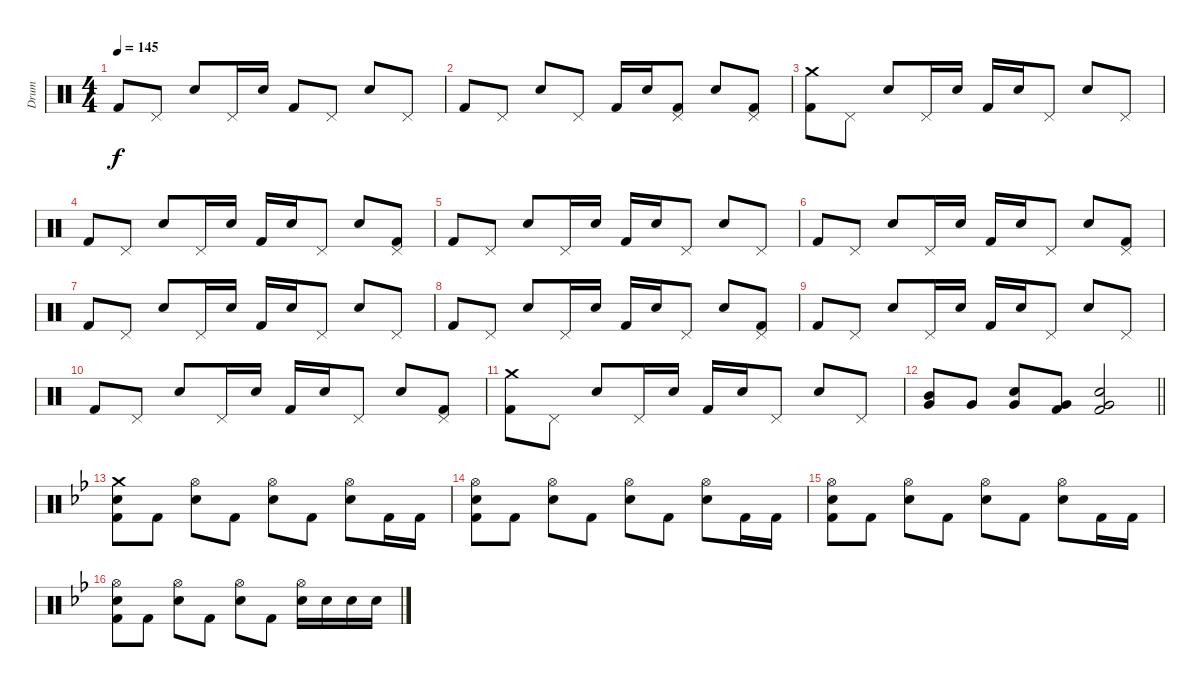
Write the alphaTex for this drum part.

\track ("Drum" "Drum") {instrument percussion}
\staff {score}
\articulation defaults
\ts (4 4)
\tempo 145
\clef neutral
\ks c "Kick (hit) 2".8{dy f} "Pedal Hi-Hat (hit)".8 "Snare (hit) 2".8 "Pedal Hi-Hat (hit)".16 "Snare (hit) 2".16 "Kick (hit) 2".8 "Pedal Hi-Hat (hit)".8 "Snare (hit) 2".8 "Pedal Hi-Hat (hit)".8
|
"Kick (hit) 2".8 "Pedal Hi-Hat (hit)".8 "Snare (hit) 2".8 "Pedal Hi-Hat (hit)".8 "Kick (hit) 2".16 "Snare (hit) 2".16 ("Pedal Hi-Hat (hit)" "Kick (hit) 2").8 "Snare (hit) 2".8 ("Pedal Hi-Hat (hit)" "Kick (hit) 2").8 |
("Crash medium (hit)" "Kick (hit) 2").8 "Pedal Hi-Hat (hit)".8 "Snare (hit) 2".8 "Pedal Hi-Hat (hit)".16 "Snare (hit) 2".16 "Kick (hit) 2".16 "Snare (hit) 2".16 "Pedal Hi-Hat (hit)".8 "Snare (hit) 2".8 "Pedal Hi-Hat (hit)".8 |
"Kick (hit) 2".8 "Pedal Hi-Hat (hit)".8 "Snare (hit) 2".8 "Pedal Hi-Hat (hit)".16 "Snare (hit) 2".16 "Kick (hit) 2".16 "Snare (hit) 2".16 "Pedal Hi-Hat (hit)".8 "Snare (hit) 2".8 ("Pedal Hi-Hat (hit)" "Kick (hit) 2").8 |
"Kick (hit) 2".8 "Pedal Hi-Hat (hit)".8 "Snare (hit) 2".8 "Pedal Hi-Hat (hit)".16 "Snare (hit) 2".16 "Kick (hit) 2".16 "Snare (hit) 2".16 "Pedal Hi-Hat (hit)".8 "Snare (hit) 2".8 "Pedal Hi-Hat (hit)".8 |
"Kick (hit) 2".8 "Pedal Hi-Hat (hit)".8 "Snare (hit) 2".8 "Pedal Hi-Hat (hit)".16 "Snare (hit) 2".16 "Kick (hit) 2".16 "Snare (hit) 2".16 "Pedal Hi-Hat (hit)".8 "Snare (hit) 2".8 ("Pedal Hi-Hat (hit)" "Kick (hit) 2").8 |
"Kick (hit) 2".8 "Pedal Hi-Hat (hit)".8 "Snare (hit) 2".8 "Pedal Hi-Hat (hit)".16 "Snare (hit) 2".16 "Kick (hit) 2".16 "Snare (hit) 2".16 "Pedal Hi-Hat (hit)".8 "Snare (hit) 2".8 "Pedal Hi-Hat (hit)".8 |
"Kick (hit) 2".8 "Pedal Hi-Hat (hit)".8 "Snare (hit) 2".8 "Pedal Hi-Hat (hit)".16 "Snare (hit) 2".16 "Kick (hit) 2".16 "Snare (hit) 2".16 "Pedal Hi-Hat (hit)".8 "Snare (hit) 2".8 ("Pedal Hi-Hat (hit)" "Kick (hit) 2").8 |
"Kick (hit) 2".8 "Pedal Hi-Hat (hit)".8 "Snare (hit) 2".8 "Pedal Hi-Hat (hit)".16 "Snare (hit) 2".16 "Kick (hit) 2".16 "Snare (hit) 2".16 "Pedal Hi-Hat (hit)".8 "Snare (hit) 2".8 "Pedal Hi-Hat (hit)".8 |
"Kick (hit) 2".8 "Pedal Hi-Hat (hit)".8 "Snare (hit) 2".8 "Pedal Hi-Hat (hit)".16 "Snare (hit) 2".16 "Kick (hit) 2".16 "Snare (hit) 2".16 "Pedal Hi-Hat (hit)".8 "Snare (hit) 2".8 ("Pedal Hi-Hat (hit)" "Kick (hit) 2").8 |
("Crash medium (hit)" "Kick (hit) 2").8 "Pedal Hi-Hat (hit)".8 "Snare (hit) 2".8 "Pedal Hi-Hat (hit)".16 "Snare (hit) 2".16 "Kick (hit) 2".16 "Snare (hit) 2".16 "Pedal Hi-Hat (hit)".8 "Snare (hit) 2".8 "Pedal Hi-Hat (hit)".8 |
\barLineRight lightlight
("Mid Tom (hit)" "Very Low Tom (hit)").8 "Very Low Tom (hit)".8 ("Snare (hit) 2" "Very Low Tom (hit)").8 ("Very Low Tom (hit)" "Kick (hit) 2").8 ("Snare (hit) 2" "Very Low Tom (hit)" "Kick (hit) 2").2 |
\ks bb
("Crash medium (hit)" "Snare (hit) 2" "Kick (hit) 2").8 "Kick (hit) 2".8 ("Hi-Hat (open)" "Snare (hit) 2").8 "Kick (hit) 2".8 ("Hi-Hat (open)" "Snare (hit) 2").8 "Kick (hit) 2".8 ("Hi-Hat (open)" "Snare (hit) 2").8 "Kick (hit) 2".16 "Kick (hit) 2".16 |
("Hi-Hat (open)" "Snare (hit) 2" "Kick (hit) 2").8 "Kick (hit) 2".8 ("Hi-Hat (open)" "Snare (hit) 2").8 "Kick (hit) 2".8 ("Hi-Hat (open)" "Snare (hit) 2").8 "Kick (hit) 2".8 ("Hi-Hat (open)" "Snare (hit) 2").8 "Kick (hit) 2".16 "Kick (hit) 2".16 |
("Hi-Hat (open)" "Snare (hit) 2" "Kick (hit) 2").8 "Kick (hit) 2".8 ("Hi-Hat (open)" "Snare (hit) 2").8 "Kick (hit) 2".8 ("Hi-Hat (open)" "Snare (hit) 2").8 "Kick (hit) 2".8 ("Hi-Hat (open)" "Snare (hit) 2").8 "Kick (hit) 2".16 "Kick (hit) 2".16 |
("Hi-Hat (open)" "Snare (hit) 2" "Kick (hit) 2").8 "Kick (hit) 2".8 ("Hi-Hat (open)" "Snare (hit) 2").8 "Kick (hit) 2".8 ("Hi-Hat (open)" "Snare (hit) 2").8 "Kick (hit) 2".8 ("Hi-Hat (open)" "Snare (hit) 2").16 "Snare (hit) 2".16 "Snare (hit) 2".16 "Snare (hit) 2".16
